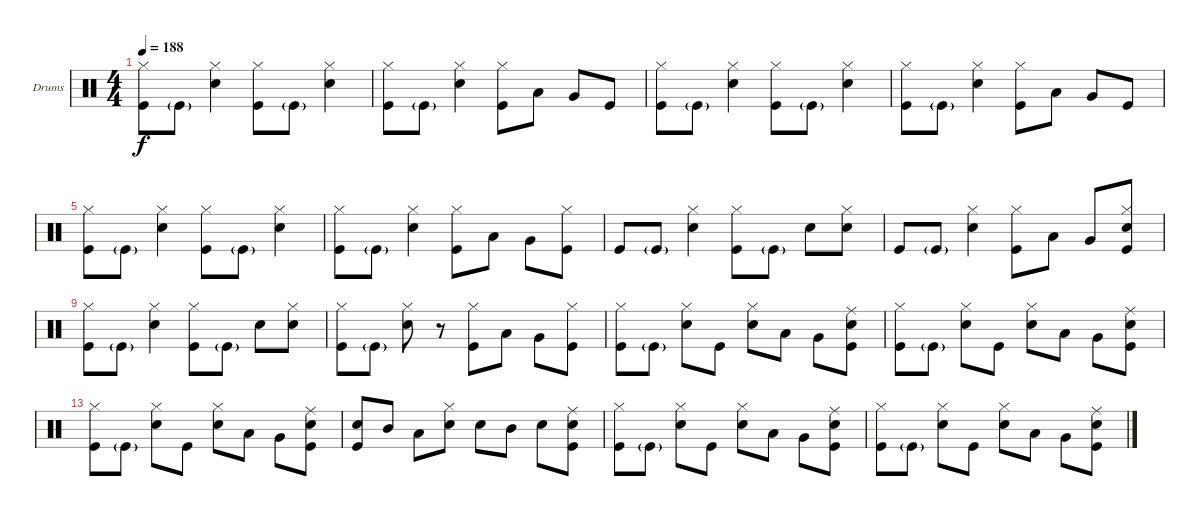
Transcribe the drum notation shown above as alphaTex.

\bracketExtendMode nobrackets
\firstSystemTrackNameOrientation horizontal
\otherSystemsTrackNameOrientation horizontal
\defaultBarNumberDisplay FirstOfSystem
\track ("Drumkit" "Drums") {instrument percussion}
\staff {score}
\articulation defaults
\ts (4 4)
\tempo 188
\clef neutral
\ks c
("Kick (hit)" "Hi-Hat (closed)").8{dy f} "Kick (hit)"{g}.8 ("Hi-Hat (closed)" "Snare (hit) 2").4 ("Hi-Hat (closed)" "Kick (hit)").8 "Kick (hit)"{g}.8 ("Hi-Hat (closed)" "Snare (hit) 2").4 |
("Hi-Hat (closed)" "Kick (hit)").8 "Kick (hit)"{g}.8 ("Hi-Hat (closed)" "Snare (hit) 2").4 ("Hi-Hat (closed)" "Kick (hit)").8 "Low Tom (hit)".8 "Very Low Tom (hit)".8 "Kick (hit)".8 |
\scale
0.151079 ("Kick (hit)" "Hi-Hat (closed)").8 "Kick (hit)"{g}.8 ("Hi-Hat (closed)" "Snare (hit) 2").4 ("Hi-Hat (closed)" "Kick (hit)").8 "Kick (hit)"{g}.8 ("Hi-Hat (closed)" "Snare (hit) 2").4 |
\scale
0.23741 ("Hi-Hat (closed)" "Kick (hit)").8 "Kick (hit)"{g}.8 ("Hi-Hat (closed)" "Snare (hit) 2").4 ("Hi-Hat (closed)" "Kick (hit)").8 "Low Tom (hit)".8 "Very Low Tom (hit)".8 "Kick (hit)".8 |
\scale
0.345324 ("Kick (hit)" "Hi-Hat (closed)").8 "Kick (hit)"{g}.8 ("Hi-Hat (closed)" "Snare (hit) 2").4 ("Hi-Hat (closed)" "Kick (hit)").8 "Kick (hit)"{g}.8 ("Hi-Hat (closed)" "Snare (hit) 2").4 |
\scale
0.266187 ("Hi-Hat (closed)" "Kick (hit)").8 "Kick (hit)"{g}.8 ("Hi-Hat (closed)" "Snare (hit) 2").4 ("Hi-Hat (closed)" "Kick (hit)").8 "Low Tom (hit)".8 "Very Low Tom (hit)".8 ("Kick (hit)" "Hi-Hat (closed)").8 |
"Kick (hit)".8 "Kick (hit)"{g}.8 ("Snare (hit) 2" "Hi-Hat (closed)").4 ("Hi-Hat (closed)" "Kick (hit)").8 "Kick (hit)"{g}.8 "Snare (hit) 2".8 ("Snare (hit) 2" "Hi-Hat (closed)").8 |
"Kick (hit)".8 "Kick (hit)"{g}.8 ("Hi-Hat (closed)" "Snare (hit) 2").4 ("Hi-Hat (closed)" "Kick (hit)").8 "Low Tom (hit)".8 "Very Low Tom (hit)".8 ("Kick (hit)" "Snare (hit) 2" "Hi-Hat (closed)").8 |
("Kick (hit)" "Hi-Hat (closed)").8 "Kick (hit)"{g}.8 ("Hi-Hat (closed)" "Snare (hit) 2").4 ("Hi-Hat (closed)" "Kick (hit)").8 "Kick (hit)"{g}.8 "Snare (hit) 2".8 ("Snare (hit) 2" "Hi-Hat (closed)").8 |
("Hi-Hat (closed)" "Kick (hit)").8 "Kick (hit)"{g}.8 ("Hi-Hat (closed)" "Snare (hit) 2").8 r.8 ("Hi-Hat (closed)" "Kick (hit)").8 "Low Tom (hit)".8 "Very Low Tom (hit)".8 ("Kick (hit)" "Hi-Hat (closed)").8 |
("Kick (hit)" "Hi-Hat (closed)").8 "Kick (hit)"{g}.8 ("Hi-Hat (closed)" "Snare (hit) 2").8 "Kick (hit)".8 ("Hi-Hat (closed)" "Snare (hit) 2").8 "Low Tom (hit)".8 "Very Low Tom (hit)".8 ("Kick (hit)" "Snare (hit) 2" "Ride (middle)").8 |
("Kick (hit)" "Hi-Hat (closed)").8 "Kick (hit)"{g}.8 ("Hi-Hat (closed)" "Snare (hit) 2").8 "Kick (hit)".8 ("Hi-Hat (closed)" "Snare (hit) 2").8 "Low Tom (hit)".8 "Very Low Tom (hit)".8 ("Kick (hit)" "Snare (hit) 2" "Ride (middle)").8 |
("Kick (hit)" "Hi-Hat (closed)").8 "Kick (hit)"{g}.8 ("Hi-Hat (closed)" "Snare (hit) 2").8 "Kick (hit)".8 ("Hi-Hat (closed)" "Snare (hit) 2").8 "Low Tom (hit)".8 "Very Low Tom (hit)".8 ("Kick (hit)" "Snare (hit) 2" "Ride (middle)").8 |
("Snare (hit) 2" "Kick (hit)").8 "Mid Tom (hit)".8 "Low Tom (hit)".8 ("Snare (hit) 2" "Hi-Hat (closed)").8 "Snare (hit) 2".8 "Mid Tom (hit)".8 "Snare (hit) 2".8 ("Kick (hit)" "Snare (hit) 2" "Ride (middle)").8 |
("Kick (hit)" "Hi-Hat (closed)").8 "Kick (hit)"{g}.8 ("Hi-Hat (closed)" "Snare (hit) 2").8 "Kick (hit)".8 ("Hi-Hat (closed)" "Snare (hit) 2").8 "Low Tom (hit)".8 "Very Low Tom (hit)".8 ("Kick (hit)" "Snare (hit) 2" "Ride (middle)").8 |
("Kick (hit)" "Hi-Hat (closed)").8 "Kick (hit)"{g}.8 ("Hi-Hat (closed)" "Snare (hit) 2").8 "Kick (hit)".8 ("Hi-Hat (closed)" "Snare (hit) 2").8 "Low Tom (hit)".8 "Very Low Tom (hit)".8 ("Kick (hit)" "Snare (hit) 2" "Ride (middle)").8
